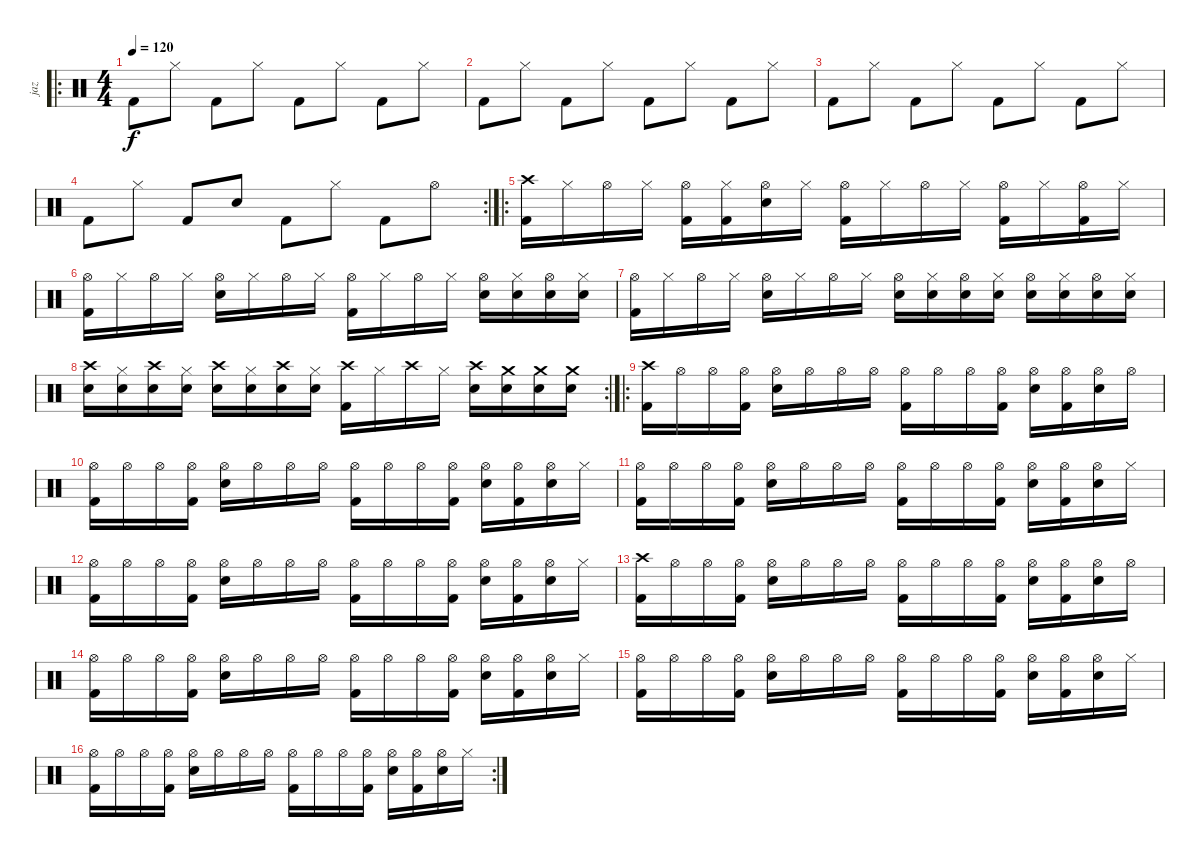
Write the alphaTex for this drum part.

\track ("jaz" "jaz") {instrument percussion}
\staff {score}
\articulation defaults
\ro
\ts (4 4)
\tempo 120
\clef neutral
\ks c "Kick (hit) 2".8{dy f} "Hi-Hat (closed)".8 "Kick (hit) 2".8 "Hi-Hat (closed)".8 "Kick (hit) 2".8 "Hi-Hat (closed)".8 "Kick (hit) 2".8 "Hi-Hat (closed)".8
|
"Kick (hit) 2".8 "Hi-Hat (closed)".8 "Kick (hit) 2".8 "Hi-Hat (closed)".8 "Kick (hit) 2".8 "Hi-Hat (closed)".8 "Kick (hit) 2".8 "Hi-Hat (closed)".8 |
"Kick (hit) 2".8 "Hi-Hat (closed)".8 "Kick (hit) 2".8 "Hi-Hat (closed)".8 "Kick (hit) 2".8 "Hi-Hat (closed)".8 "Kick (hit) 2".8 "Hi-Hat (closed)".8 |
\rc 2 "Kick (hit) 2".8 "Hi-Hat (closed)".8 "Kick (hit) 2".8 "Snare (hit) 2".8 "Kick (hit) 2".8 "Hi-Hat (closed)".8 "Kick (hit) 2".8 "Hi-Hat (open)".8
|
\ro
("Crash high (hit)" "Kick (hit) 2").16 "Hi-Hat (closed)".16 "Hi-Hat (open)".16 "Hi-Hat (closed)".16 ("Hi-Hat (open)" "Kick (hit) 2").16 ("Hi-Hat (closed)" "Kick (hit) 2").16 ("Hi-Hat (open)" "Electric Snare (hit)").16 "Hi-Hat (closed)".16 ("Hi-Hat (open)" "Kick (hit) 2").16 "Hi-Hat (closed)".16 "Hi-Hat (open)".16 "Hi-Hat (closed)".16 ("Hi-Hat (open)" "Kick (hit) 2").16 "Hi-Hat (closed)".16 ("Hi-Hat (open)" "Kick (hit) 2").16 "Hi-Hat (closed)".16 |
("Hi-Hat (open)" "Kick (hit) 2").16 "Hi-Hat (closed)".16 "Hi-Hat (open)".16 "Hi-Hat (closed)".16 ("Hi-Hat (open)" "Electric Snare (hit)").16 "Hi-Hat (closed)".16 "Hi-Hat (open)".16 "Hi-Hat (closed)".16 ("Hi-Hat (open)" "Kick (hit) 2").16 "Hi-Hat (closed)".16 "Hi-Hat (open)".16 "Hi-Hat (closed)".16 ("Hi-Hat (open)" "Electric Snare (hit)").16 ("Hi-Hat (closed)" "Electric Snare (hit)").16 ("Hi-Hat (open)" "Electric Snare (hit)").16 ("Hi-Hat (closed)" "Electric Snare (hit)").16 |
("Hi-Hat (open)" "Kick (hit) 2").16 "Hi-Hat (closed)".16 "Hi-Hat (open)".16 "Hi-Hat (closed)".16 ("Hi-Hat (open)" "Electric Snare (hit)").16 "Hi-Hat (closed)".16 "Hi-Hat (open)".16 "Hi-Hat (closed)".16 ("Hi-Hat (open)" "Electric Snare (hit)").16 ("Hi-Hat (closed)" "Electric Snare (hit)").16 ("Hi-Hat (open)" "Electric Snare (hit)").16 ("Hi-Hat (closed)" "Electric Snare (hit)").16 ("Hi-Hat (open)" "Electric Snare (hit)").16 ("Hi-Hat (closed)" "Electric Snare (hit)").16 ("Hi-Hat (open)" "Electric Snare (hit)").16 ("Hi-Hat (closed)" "Electric Snare (hit)").16 |
\rc 2
("Crash high (hit)" "Electric Snare (hit)").16 ("Hi-Hat (closed)" "Electric Snare (hit)").16 ("Crash high (hit)" "Electric Snare (hit)").16 ("Hi-Hat (closed)" "Electric Snare (hit)").16 ("Crash high (hit)" "Electric Snare (hit)").16 ("Hi-Hat (closed)" "Electric Snare (hit)").16 ("Crash high (hit)" "Electric Snare (hit)").16 ("Hi-Hat (closed)" "Electric Snare (hit)").16 ("Crash high (hit)" "Kick (hit) 2").16 "Hi-Hat (closed)".16 "Crash high (hit)".16 "Hi-Hat (closed)".16 ("Crash high (hit)" "Electric Snare (hit)").16 ("Crash medium (hit)" "Electric Snare (hit)").16 ("Crash medium (hit)" "Electric Snare (hit)").16 ("Crash medium (hit)" "Electric Snare (hit)").16 |
\ro
("Crash high (hit)" "Kick (hit) 2").16 "Hi-Hat (open)".16 "Hi-Hat (open)".16 ("Hi-Hat (open)" "Kick (hit) 2").16 ("Hi-Hat (open)" "Electric Snare (hit)").16 "Hi-Hat (open)".16 "Hi-Hat (open)".16 "Hi-Hat (open)".16 ("Hi-Hat (open)" "Kick (hit) 2").16 "Hi-Hat (open)".16 "Hi-Hat (open)".16 ("Hi-Hat (open)" "Kick (hit) 2").16 ("Hi-Hat (open)" "Electric Snare (hit)").16 ("Hi-Hat (open)" "Kick (hit) 2").16 ("Hi-Hat (open)" "Electric Snare (hit)").16 "Hi-Hat (open)".16 |
("Hi-Hat (open)" "Kick (hit) 2").16 "Hi-Hat (open)".16 "Hi-Hat (open)".16 ("Hi-Hat (open)" "Kick (hit) 2").16 ("Hi-Hat (open)" "Electric Snare (hit)").16 "Hi-Hat (open)".16 "Hi-Hat (open)".16 "Hi-Hat (open)".16 ("Hi-Hat (open)" "Kick (hit) 2").16 "Hi-Hat (open)".16 "Hi-Hat (open)".16 ("Hi-Hat (open)" "Kick (hit) 2").16 ("Hi-Hat (open)" "Electric Snare (hit)").16 ("Hi-Hat (open)" "Kick (hit) 2").16 ("Hi-Hat (open)" "Electric Snare (hit)").16 "Hi-Hat (closed)".16 |
("Hi-Hat (open)" "Kick (hit) 2").16 "Hi-Hat (open)".16 "Hi-Hat (open)".16 ("Hi-Hat (open)" "Kick (hit) 2").16 ("Hi-Hat (open)" "Electric Snare (hit)").16 "Hi-Hat (open)".16 "Hi-Hat (open)".16 "Hi-Hat (open)".16 ("Hi-Hat (open)" "Kick (hit) 2").16 "Hi-Hat (open)".16 "Hi-Hat (open)".16 ("Hi-Hat (open)" "Kick (hit) 2").16 ("Hi-Hat (open)" "Electric Snare (hit)").16 ("Hi-Hat (open)" "Kick (hit) 2").16 ("Hi-Hat (open)" "Electric Snare (hit)").16 "Hi-Hat (closed)".16 |
("Hi-Hat (open)" "Kick (hit) 2").16 "Hi-Hat (open)".16 "Hi-Hat (open)".16 ("Hi-Hat (open)" "Kick (hit) 2").16 ("Hi-Hat (open)" "Electric Snare (hit)").16 "Hi-Hat (open)".16 "Hi-Hat (open)".16 "Hi-Hat (open)".16 ("Hi-Hat (open)" "Kick (hit) 2").16 "Hi-Hat (open)".16 "Hi-Hat (open)".16 ("Hi-Hat (open)" "Kick (hit) 2").16 ("Hi-Hat (open)" "Electric Snare (hit)").16 ("Hi-Hat (open)" "Kick (hit) 2").16 ("Hi-Hat (open)" "Electric Snare (hit)").16 "Hi-Hat (closed)".16 |
("Crash high (hit)" "Kick (hit) 2").16 "Hi-Hat (open)".16 "Hi-Hat (open)".16 ("Hi-Hat (open)" "Kick (hit) 2").16 ("Hi-Hat (open)" "Electric Snare (hit)").16 "Hi-Hat (open)".16 "Hi-Hat (open)".16 "Hi-Hat (open)".16 ("Hi-Hat (open)" "Kick (hit) 2").16 "Hi-Hat (open)".16 "Hi-Hat (open)".16 ("Hi-Hat (open)" "Kick (hit) 2").16 ("Hi-Hat (open)" "Electric Snare (hit)").16 ("Hi-Hat (open)" "Kick (hit) 2").16 ("Hi-Hat (open)" "Electric Snare (hit)").16 "Hi-Hat (open)".16 |
("Hi-Hat (open)" "Kick (hit) 2").16 "Hi-Hat (open)".16 "Hi-Hat (open)".16 ("Hi-Hat (open)" "Kick (hit) 2").16 ("Hi-Hat (open)" "Electric Snare (hit)").16 "Hi-Hat (open)".16 "Hi-Hat (open)".16 "Hi-Hat (open)".16 ("Hi-Hat (open)" "Kick (hit) 2").16 "Hi-Hat (open)".16 "Hi-Hat (open)".16 ("Hi-Hat (open)" "Kick (hit) 2").16 ("Hi-Hat (open)" "Electric Snare (hit)").16 ("Hi-Hat (open)" "Kick (hit) 2").16 ("Hi-Hat (open)" "Electric Snare (hit)").16 "Hi-Hat (closed)".16 |
("Hi-Hat (open)" "Kick (hit) 2").16 "Hi-Hat (open)".16 "Hi-Hat (open)".16 ("Hi-Hat (open)" "Kick (hit) 2").16 ("Hi-Hat (open)" "Electric Snare (hit)").16 "Hi-Hat (open)".16 "Hi-Hat (open)".16 "Hi-Hat (open)".16 ("Hi-Hat (open)" "Kick (hit) 2").16 "Hi-Hat (open)".16 "Hi-Hat (open)".16 ("Hi-Hat (open)" "Kick (hit) 2").16 ("Hi-Hat (open)" "Electric Snare (hit)").16 ("Hi-Hat (open)" "Kick (hit) 2").16 ("Hi-Hat (open)" "Electric Snare (hit)").16 "Hi-Hat (closed)".16 |
\rc 2
("Hi-Hat (open)" "Kick (hit) 2").16 "Hi-Hat (open)".16 "Hi-Hat (open)".16 ("Hi-Hat (open)" "Kick (hit) 2").16 ("Hi-Hat (open)" "Electric Snare (hit)").16 "Hi-Hat (open)".16 "Hi-Hat (open)".16 "Hi-Hat (open)".16 ("Hi-Hat (open)" "Kick (hit) 2").16 "Hi-Hat (open)".16 "Hi-Hat (open)".16 ("Hi-Hat (open)" "Kick (hit) 2").16 ("Hi-Hat (open)" "Electric Snare (hit)").16 ("Hi-Hat (open)" "Kick (hit) 2").16 ("Hi-Hat (open)" "Electric Snare (hit)").16 "Hi-Hat (closed)".16
